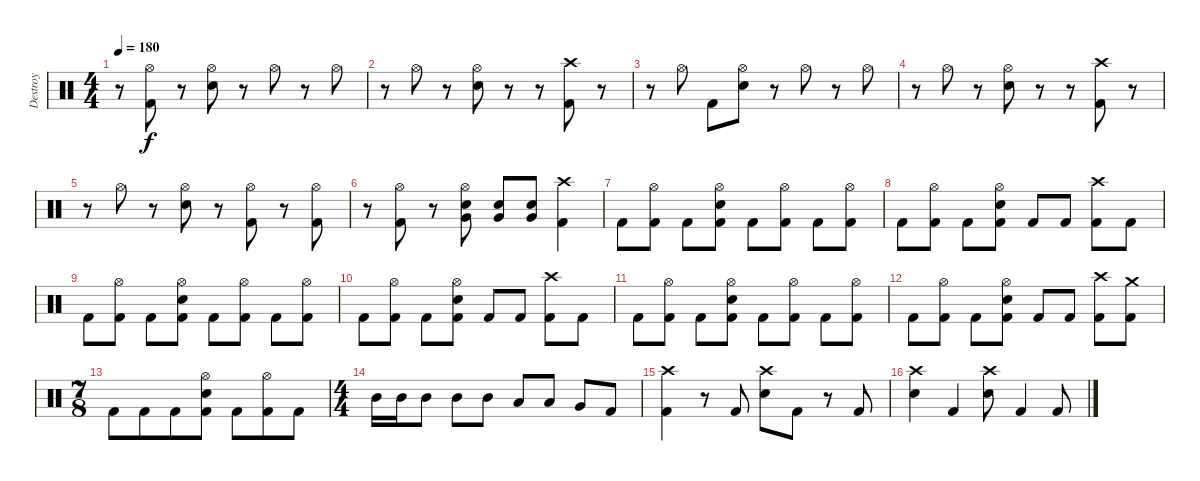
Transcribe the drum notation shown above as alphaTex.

\track ("Destroy" "Destroy") {instrument percussion}
\staff {score}
\articulation defaults
\ts (4 4)
\tempo 180
\clef neutral
\ks c
r.8{dy f} ("Hi-Hat (open)" "Kick (hit) 2").8 r.8 ("Hi-Hat (open)" "Electric Snare (hit)").8 r.8 "Hi-Hat (open)".8 r.8 "Hi-Hat (open)".8 |
r.8 "Hi-Hat (open)".8 r.8 ("Hi-Hat (open)" "Electric Snare (hit)").8 r.8 r.8 ("Crash high (hit)" "Kick (hit) 2").8 r.8 |
r.8 "Hi-Hat (open)".8 "Kick (hit) 2".8 ("Hi-Hat (open)" "Electric Snare (hit)").8 r.8 "Hi-Hat (open)".8 r.8 "Hi-Hat (open)".8 |
r.8 "Hi-Hat (open)".8 r.8 ("Hi-Hat (open)" "Electric Snare (hit)").8 r.8 r.8 ("Crash high (hit)" "Kick (hit) 2").8 r.8 |
r.8 "Hi-Hat (open)".8 r.8 ("Hi-Hat (open)" "Electric Snare (hit)").8 r.8 ("Hi-Hat (open)" "Kick (hit) 2").8 r.8 ("Hi-Hat (open)" "Kick (hit) 2").8 |
r.8 ("Hi-Hat (open)" "Kick (hit) 2").8 r.8 ("Hi-Hat (open)" "Electric Snare (hit)" "Very Low Tom (hit)").8 ("Electric Snare (hit)" "Very Low Tom (hit)").8 ("Electric Snare (hit)" "Very Low Tom (hit)").8 ("Crash high (hit)" "Kick (hit) 2").4 |
"Kick (hit) 2".8 ("Hi-Hat (open)" "Kick (hit) 2").8 "Kick (hit) 2".8 ("Hi-Hat (open)" "Electric Snare (hit)" "Kick (hit) 2").8 "Kick (hit) 2".8 ("Hi-Hat (open)" "Kick (hit) 2").8 "Kick (hit) 2".8 ("Hi-Hat (open)" "Kick (hit) 2").8 |
"Kick (hit) 2".8 ("Hi-Hat (open)" "Kick (hit) 2").8 "Kick (hit) 2".8 ("Hi-Hat (open)" "Electric Snare (hit)" "Kick (hit) 2").8 "Kick (hit) 2".8 "Kick (hit) 2".8 ("Crash high (hit)" "Kick (hit) 2").8 "Kick (hit) 2".8 |
"Kick (hit) 2".8 ("Hi-Hat (open)" "Kick (hit) 2").8 "Kick (hit) 2".8 ("Hi-Hat (open)" "Electric Snare (hit)" "Kick (hit) 2").8 "Kick (hit) 2".8 ("Hi-Hat (open)" "Kick (hit) 2").8 "Kick (hit) 2".8 ("Hi-Hat (open)" "Kick (hit) 2").8 |
"Kick (hit) 2".8 ("Hi-Hat (open)" "Kick (hit) 2").8 "Kick (hit) 2".8 ("Hi-Hat (open)" "Electric Snare (hit)" "Kick (hit) 2").8 "Kick (hit) 2".8 "Kick (hit) 2".8 ("Crash high (hit)" "Kick (hit) 2").8 "Kick (hit) 2".8 |
"Kick (hit) 2".8 ("Hi-Hat (open)" "Kick (hit) 2").8 "Kick (hit) 2".8 ("Hi-Hat (open)" "Electric Snare (hit)" "Kick (hit) 2").8 "Kick (hit) 2".8 ("Hi-Hat (open)" "Kick (hit) 2").8 "Kick (hit) 2".8 ("Hi-Hat (open)" "Kick (hit) 2").8 |
"Kick (hit) 2".8 ("Hi-Hat (open)" "Kick (hit) 2").8 "Kick (hit) 2".8 ("Hi-Hat (open)" "Electric Snare (hit)" "Kick (hit) 2").8 "Kick (hit) 2".8 "Kick (hit) 2".8 ("Crash high (hit)" "Kick (hit) 2").8 ("Crash medium (hit)" "Kick (hit) 2").8 |
\ts (7 8)
"Kick (hit) 2".8 "Kick (hit) 2".8 "Kick (hit) 2".8 ("Hi-Hat (open)" "Electric Snare (hit)" "Kick (hit) 2").8 "Kick (hit) 2".8 ("Hi-Hat (open)" "Kick (hit) 2").8 "Kick (hit) 2".8 |
\ts (4 4)
"Mid Tom (hit)".16 "Mid Tom (hit)".16 "Mid Tom (hit)".8 "Mid Tom (hit)".8 "Mid Tom (hit)".8 "Low Tom (hit)".8 "Low Tom (hit)".8 "Very Low Tom (hit)".8 "Kick (hit) 2".8 |
("Crash high (hit)" "Kick (hit) 2").4 r.8 "Kick (hit) 2".8 ("Crash high (hit)" "Electric Snare (hit)").8 "Kick (hit) 2".8 r.8 "Kick (hit) 2".8 |
("Crash high (hit)" "Electric Snare (hit)").4 "Kick (hit) 2".4 ("Crash high (hit)" "Electric Snare (hit)").8 "Kick (hit) 2".4 "Kick (hit) 2".8
